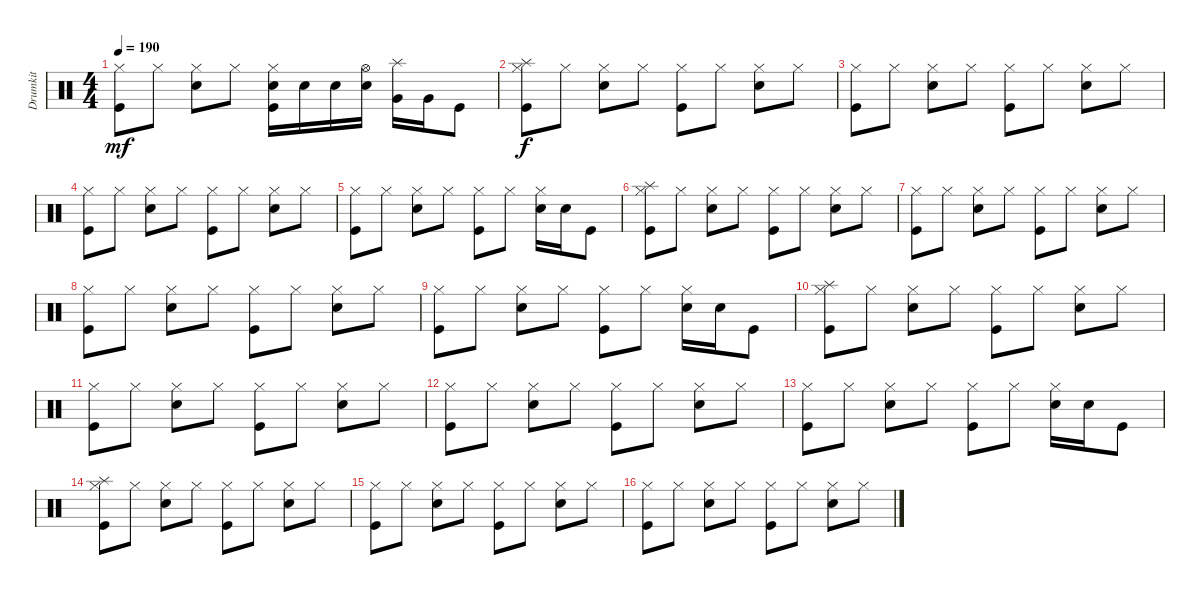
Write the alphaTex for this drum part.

\track ("Drumkit" "Drumkit") {instrument percussion}
\staff {score}
\articulation defaults
\ts (4 4)
\tempo 190
\clef neutral
\ks c
("Kick (hit)" "Hi-Hat (closed)").8{dy mf} "Hi-Hat (closed)".8 ("Snare (hit) 2" "Hi-Hat (closed)").8 "Hi-Hat (closed)".8 ("Hi-Hat (closed)" "Kick (hit)" "Snare (hit) 2").16 "Snare (hit) 2".16 "Snare (hit) 2".16 ("Snare (hit) 2" "Hi-Hat (open)").16 ("Very Low Tom (hit)" "Splash (hit)").16 "Very Low Tom (hit)".16 "Kick (hit)".8 |
("Kick (hit)" "Hi-Hat (closed)" "Splash (hit)").8{dy f} "Hi-Hat (closed)".8 ("Snare (hit) 2" "Hi-Hat (closed)").8 "Hi-Hat (closed)".8 ("Hi-Hat (closed)" "Kick (hit)").8 "Hi-Hat (closed)".8 ("Hi-Hat (closed)" "Snare (hit) 2").8 "Hi-Hat (closed)".8 |
("Kick (hit)" "Hi-Hat (closed)").8 "Hi-Hat (closed)".8 ("Snare (hit) 2" "Hi-Hat (closed)").8 "Hi-Hat (closed)".8 ("Hi-Hat (closed)" "Kick (hit)").8 "Hi-Hat (closed)".8 ("Hi-Hat (closed)" "Snare (hit) 2").8 "Hi-Hat (closed)".8 |
("Kick (hit)" "Hi-Hat (closed)").8 "Hi-Hat (closed)".8 ("Snare (hit) 2" "Hi-Hat (closed)").8 "Hi-Hat (closed)".8 ("Hi-Hat (closed)" "Kick (hit)").8 "Hi-Hat (closed)".8 ("Hi-Hat (closed)" "Snare (hit) 2").8 "Hi-Hat (closed)".8 |
("Kick (hit)" "Hi-Hat (closed)").8 "Hi-Hat (closed)".8 ("Snare (hit) 2" "Hi-Hat (closed)").8 "Hi-Hat (closed)".8 ("Hi-Hat (closed)" "Kick (hit)").8 "Hi-Hat (closed)".8 ("Hi-Hat (closed)" "Snare (hit) 2").16 "Snare (hit) 2".16 "Kick (hit)".8 |
("Kick (hit)" "Hi-Hat (closed)" "Splash (hit)").8 "Hi-Hat (closed)".8 ("Snare (hit) 2" "Hi-Hat (closed)").8 "Hi-Hat (closed)".8 ("Hi-Hat (closed)" "Kick (hit)").8 "Hi-Hat (closed)".8 ("Hi-Hat (closed)" "Snare (hit) 2").8 "Hi-Hat (closed)".8 |
("Kick (hit)" "Hi-Hat (closed)").8 "Hi-Hat (closed)".8 ("Snare (hit) 2" "Hi-Hat (closed)").8 "Hi-Hat (closed)".8 ("Hi-Hat (closed)" "Kick (hit)").8 "Hi-Hat (closed)".8 ("Hi-Hat (closed)" "Snare (hit) 2").8 "Hi-Hat (closed)".8 |
("Kick (hit)" "Hi-Hat (closed)").8 "Hi-Hat (closed)".8 ("Snare (hit) 2" "Hi-Hat (closed)").8 "Hi-Hat (closed)".8 ("Hi-Hat (closed)" "Kick (hit)").8 "Hi-Hat (closed)".8 ("Hi-Hat (closed)" "Snare (hit) 2").8 "Hi-Hat (closed)".8 |
("Kick (hit)" "Hi-Hat (closed)").8 "Hi-Hat (closed)".8 ("Snare (hit) 2" "Hi-Hat (closed)").8 "Hi-Hat (closed)".8 ("Hi-Hat (closed)" "Kick (hit)").8 "Hi-Hat (closed)".8 ("Hi-Hat (closed)" "Snare (hit) 2").16 "Snare (hit) 2".16 "Kick (hit)".8 |
("Kick (hit)" "Hi-Hat (closed)" "Splash (hit)").8 "Hi-Hat (closed)".8 ("Snare (hit) 2" "Hi-Hat (closed)").8 "Hi-Hat (closed)".8 ("Hi-Hat (closed)" "Kick (hit)").8 "Hi-Hat (closed)".8 ("Hi-Hat (closed)" "Snare (hit) 2").8 "Hi-Hat (closed)".8 |
("Kick (hit)" "Hi-Hat (closed)").8 "Hi-Hat (closed)".8 ("Snare (hit) 2" "Hi-Hat (closed)").8 "Hi-Hat (closed)".8 ("Hi-Hat (closed)" "Kick (hit)").8 "Hi-Hat (closed)".8 ("Hi-Hat (closed)" "Snare (hit) 2").8 "Hi-Hat (closed)".8 |
("Kick (hit)" "Hi-Hat (closed)").8 "Hi-Hat (closed)".8 ("Snare (hit) 2" "Hi-Hat (closed)").8 "Hi-Hat (closed)".8 ("Hi-Hat (closed)" "Kick (hit)").8 "Hi-Hat (closed)".8 ("Hi-Hat (closed)" "Snare (hit) 2").8 "Hi-Hat (closed)".8 |
("Kick (hit)" "Hi-Hat (closed)").8 "Hi-Hat (closed)".8 ("Snare (hit) 2" "Hi-Hat (closed)").8 "Hi-Hat (closed)".8 ("Hi-Hat (closed)" "Kick (hit)").8 "Hi-Hat (closed)".8 ("Hi-Hat (closed)" "Snare (hit) 2").16 "Snare (hit) 2".16 "Kick (hit)".8 |
("Kick (hit)" "Hi-Hat (closed)" "Splash (hit)").8 "Hi-Hat (closed)".8 ("Snare (hit) 2" "Hi-Hat (closed)").8 "Hi-Hat (closed)".8 ("Hi-Hat (closed)" "Kick (hit)").8 "Hi-Hat (closed)".8 ("Hi-Hat (closed)" "Snare (hit) 2").8 "Hi-Hat (closed)".8 |
("Kick (hit)" "Hi-Hat (closed)").8 "Hi-Hat (closed)".8 ("Snare (hit) 2" "Hi-Hat (closed)").8 "Hi-Hat (closed)".8 ("Hi-Hat (closed)" "Kick (hit)").8 "Hi-Hat (closed)".8 ("Hi-Hat (closed)" "Snare (hit) 2").8 "Hi-Hat (closed)".8 |
("Kick (hit)" "Hi-Hat (closed)").8 "Hi-Hat (closed)".8 ("Snare (hit) 2" "Hi-Hat (closed)").8 "Hi-Hat (closed)".8 ("Hi-Hat (closed)" "Kick (hit)").8 "Hi-Hat (closed)".8 ("Hi-Hat (closed)" "Snare (hit) 2").8 "Hi-Hat (closed)".8
